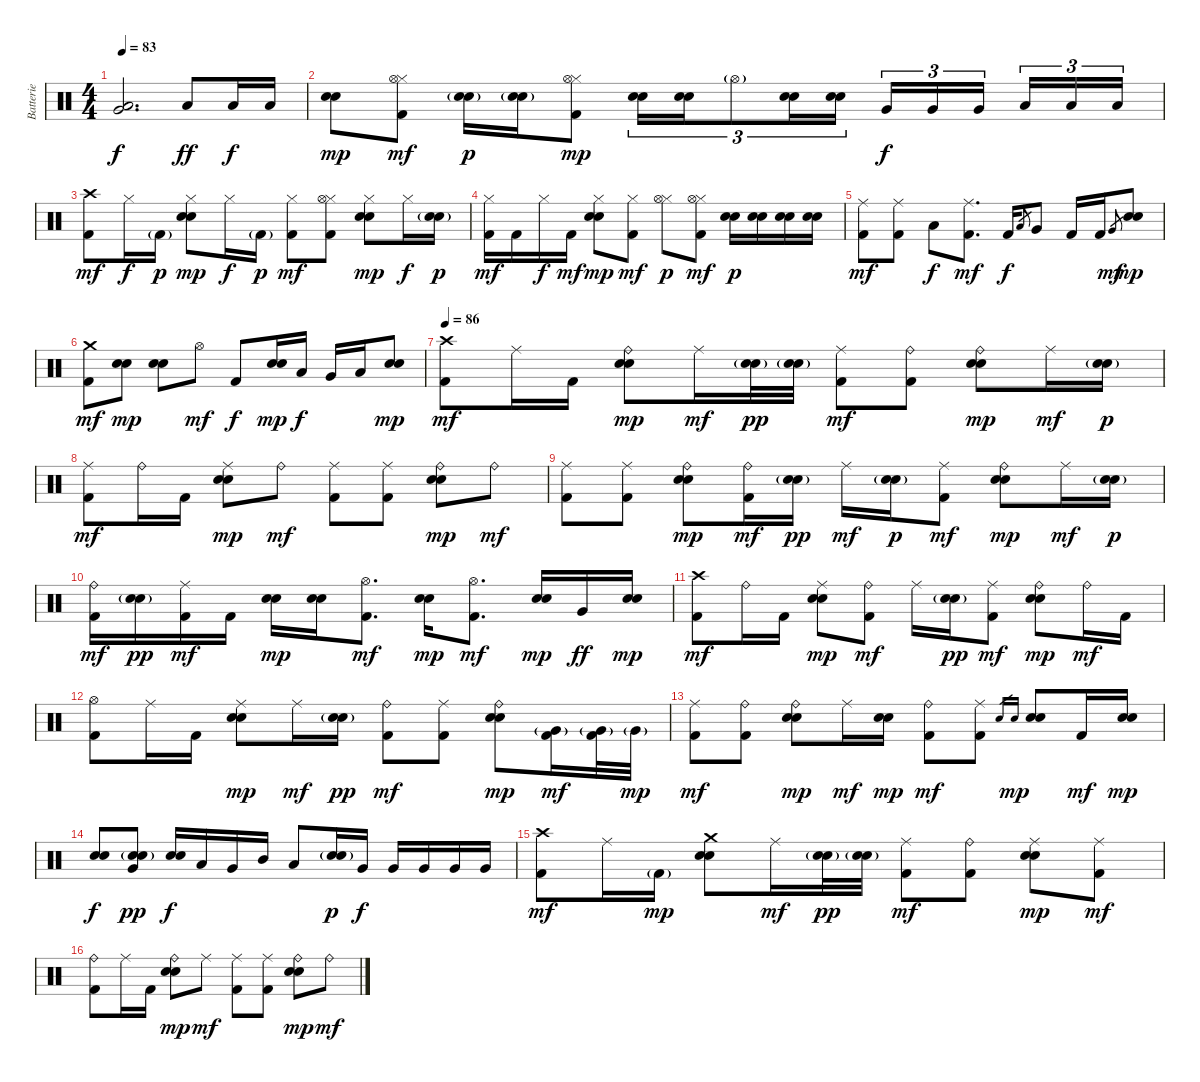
\track ("Batterie" "Batterie") {instrument percussion}
\staff {score}
\articulation defaults
\ts (4 4)
\tempo 83
\clef neutral
\ks c
("Very Low Tom (hit)" "Low Floor Tom (hit)").2{d dy f} "Low Floor Tom (hit)".8{dy ff} "Low Floor Tom (hit)".16{dy f} "Low Floor Tom (hit)".16 |
("Electric Snare (hit)" "Snare (hit) 2").8{dy mp} ("Hi-Hat (closed)" "Hi-Hat (open)" "Kick (hit) 2").8{dy mf} ("Electric Snare (hit)"{g} "Snare (hit) 2"{g}).16{dy p} ("Electric Snare (hit)"{g} "Snare (hit) 2"{g}).16 ("Hi-Hat (closed)" "Hi-Hat (open)" "Kick (hit) 2").8{dy mp} ("Electric Snare (hit)" "Snare (hit) 2").16{tu (3 2)} ("Electric Snare (hit)" "Snare (hit) 2").16{tu (3 2)} "Hi-Hat (open)"{g}.8{tu (3 2)} ("Electric Snare (hit)" "Snare (hit) 2").16{tu (3 2)} ("Electric Snare (hit)" "Snare (hit) 2").16{tu (3 2)} "Very Low Tom (hit)".16{tu (3 2) dy f} "Very Low Tom (hit)".16{tu (3 2)} "Very Low Tom (hit)".16{tu (3 2)} "Low Floor Tom (hit)".16{tu (3 2)} "Low Floor Tom (hit)".16{tu (3 2)} "Low Floor Tom (hit)".16{tu (3 2)} |
("Crash high (hit)" "Kick (hit) 2").8{dy mf} "Hi-Hat (closed)".16{dy f} "Kick (hit) 2"{g}.16{dy p} ("Hi-Hat (closed)" "Electric Snare (hit)" "Snare (hit) 2").8{dy mp} "Hi-Hat (closed)".16{dy f} "Kick (hit) 2"{g}.16{dy p} ("Hi-Hat (closed)" "Kick (hit) 2").8{dy mf} ("Hi-Hat (closed)" "Hi-Hat (open)" "Kick (hit) 2").8 ("Hi-Hat (closed)" "Electric Snare (hit)" "Snare (hit) 2").8{dy mp} "Hi-Hat (closed)".16{dy f} ("Electric Snare (hit)"{g} "Snare (hit) 2"{g}).16{dy p} |
("Hi-Hat (closed)" "Kick (hit) 2").16{dy mf} "Kick (hit) 2".16 "Hi-Hat (closed)".16{dy f} "Kick (hit) 2".16{dy mf} ("Hi-Hat (closed)" "Electric Snare (hit)" "Snare (hit) 2").8{dy mp} ("Hi-Hat (closed)" "Kick (hit) 2").8{dy mf} ("Hi-Hat (closed)" "Hi-Hat (open)").8{dy p} ("Hi-Hat (closed)" "Hi-Hat (open)" "Kick (hit) 2").8{dy mf} ("Electric Snare (hit)" "Snare (hit) 2").16{dy p} ("Electric Snare (hit)" "Snare (hit) 2").16 ("Electric Snare (hit)" "Snare (hit) 2").16 ("Electric Snare (hit)" "Snare (hit) 2").16 |
("Ride (middle)" "Kick (hit) 2").8{dy mf} ("Ride (middle)" "Kick (hit) 2").8 "Low Tom (hit)".8{dy f} ("Ride (middle)" "Kick (hit) 2").8{d dy mf} "Kick (hit) 2".16{dy f} "Low Tom (hit)".8{gr} "Very Low Tom (hit)".8 "Kick (hit) 2".16 "Kick (hit) 2".16 "Very Low Tom (hit)".8{gr dy mf} ("Electric Snare (hit)" "Snare (hit) 2").8{dy mp} |
("Crash medium (hit)" "Kick (hit) 2").8{dy mf} ("Electric Snare (hit)" "Snare (hit) 2").8{dy mp} ("Electric Snare (hit)" "Snare (hit) 2").8 "Hi-Hat (open)".8{dy mf} "Kick (hit) 2".8{dy f} ("Electric Snare (hit)" "Snare (hit) 2").16{dy mp} "Low Tom (hit)".16{dy f} "Very Low Tom (hit)".16 "Low Floor Tom (hit)".16 ("Electric Snare (hit)" "Snare (hit) 2").8{dy mp} |
\tempo 86
("Crash high (hit)" "Kick (hit) 2").8{dy mf} "Ride (middle)".16 "Kick (hit) 2".16 ("Ride (bell)" "Electric Snare (hit)" "Snare (hit) 2").8{dy mp} "Ride (middle)".16{dy mf} ("Electric Snare (hit)"{g} "Snare (hit) 2"{g}).32{dy pp} ("Electric Snare (hit)"{g} "Snare (hit) 2"{g}).32 ("Ride (middle)" "Kick (hit) 2").8{dy mf} ("Ride (bell)" "Kick (hit) 2").8 ("Ride (bell)" "Electric Snare (hit)" "Snare (hit) 2").8{dy mp} "Ride (middle)".16{dy mf} ("Electric Snare (hit)"{g} "Snare (hit) 2"{g}).16{dy p} |
("Ride (middle)" "Kick (hit) 2").8{dy mf} "Ride (bell)".16 "Kick (hit) 2".16 ("Ride (middle)" "Electric Snare (hit)" "Snare (hit) 2").8{dy mp} "Ride (bell)".8{dy mf} ("Ride (middle)" "Kick (hit) 2").8 ("Ride (middle)" "Kick (hit) 2").8 ("Ride (bell)" "Electric Snare (hit)" "Snare (hit) 2").8{dy mp} "Ride (bell)".8{dy mf} |
("Ride (middle)" "Kick (hit) 2").8 ("Ride (middle)" "Kick (hit) 2").8 ("Ride (bell)" "Electric Snare (hit)" "Snare (hit) 2").8{dy mp} ("Ride (bell)" "Kick (hit) 2").16{dy mf} ("Electric Snare (hit)"{g} "Snare (hit) 2"{g}).16{dy pp} "Ride (middle)".16{dy mf} ("Electric Snare (hit)"{g} "Snare (hit) 2"{g}).16{dy p} ("Ride (middle)" "Kick (hit) 2").8{dy mf} ("Ride (bell)" "Electric Snare (hit)" "Snare (hit) 2").8{dy mp} "Ride (middle)".16{dy mf} ("Electric Snare (hit)"{g} "Snare (hit) 2"{g}).16{dy p} |
("Ride (bell)" "Kick (hit) 2").16{dy mf} ("Electric Snare (hit)"{g} "Snare (hit) 2"{g}).16{dy pp} ("Ride (middle)" "Kick (hit) 2").16{dy mf} "Kick (hit) 2".16 ("Electric Snare (hit)" "Snare (hit) 2").16{dy mp} ("Electric Snare (hit)" "Snare (hit) 2").16 ("Hi-Hat (open)" "Kick (hit) 2").8{d dy mf} ("Electric Snare (hit)" "Snare (hit) 2").16{dy mp} ("Hi-Hat (open)" "Kick (hit) 2").8{d dy mf} ("Electric Snare (hit)" "Snare (hit) 2").16{dy mp} "Very Low Tom (hit)".16{dy ff} ("Electric Snare (hit)" "Snare (hit) 2").16{dy mp} |
("Crash high (hit)" "Kick (hit) 2").8{dy mf} "Ride (bell)".16 "Kick (hit) 2".16 ("Ride (middle)" "Electric Snare (hit)" "Snare (hit) 2").8{dy mp} ("Ride (bell)" "Kick (hit) 2").8{dy mf} "Ride (middle)".16 ("Electric Snare (hit)"{g} "Snare (hit) 2"{g}).16{dy pp} ("Ride (middle)" "Kick (hit) 2").8{dy mf} ("Ride (bell)" "Electric Snare (hit)" "Snare (hit) 2").8{dy mp} "Ride (bell)".16{dy mf} "Kick (hit) 2".16 |
("Hi-Hat (open)" "Kick (hit) 2").8 "Ride (middle)".16 "Kick (hit) 2".16 ("Ride (middle)" "Electric Snare (hit)" "Snare (hit) 2").8{dy mp} "Ride (middle)".16{dy mf} ("Electric Snare (hit)"{g} "Snare (hit) 2"{g}).16{dy pp} ("Ride (bell)" "Kick (hit) 2").8{dy mf} ("Ride (middle)" "Kick (hit) 2").8 ("Ride (bell)" "Electric Snare (hit)" "Snare (hit) 2").8{dy mp} ("Very Low Tom (hit)"{g} "Kick (hit) 2").16{dy mf} ("Very Low Tom (hit)"{g} "Kick (hit) 2").32 "Very Low Tom (hit)"{g}.32{dy mp} |
("Ride (middle)" "Kick (hit) 2").8{dy mf} ("Ride (bell)" "Kick (hit) 2").8 ("Ride (bell)" "Electric Snare (hit)" "Snare (hit) 2").8{dy mp} "Ride (middle)".16{dy mf} ("Electric Snare (hit)" "Snare (hit) 2").16{dy mp} ("Ride (bell)" "Kick (hit) 2").8{dy mf} ("Ride (middle)" "Kick (hit) 2").8 "Electric Snare (hit)".16{gr} "Snare (hit) 2".16{gr dy mp} ("Electric Snare (hit)" "Snare (hit) 2").8 "Kick (hit) 2".16{dy mf} ("Electric Snare (hit)" "Snare (hit) 2").16{dy mp} |
("Electric Snare (hit)" "Snare (hit) 2").8{dy f} ("Electric Snare (hit)"{g} "Snare (hit) 2"{g} "Very Low Tom (hit)").8{dy pp} ("Electric Snare (hit)" "Snare (hit) 2").16{dy f} "Low Tom (hit)".16 "Very Low Tom (hit)".16 "Mid Tom (hit)".16 "Low Tom (hit)".8 ("Electric Snare (hit)"{g} "Snare (hit) 2"{g}).16{dy p} "Very Low Tom (hit)".16{dy f} "Very Low Tom (hit)".16 "Very Low Tom (hit)".16 "Very Low Tom (hit)".16 "Very Low Tom (hit)".16 |
("Crash high (hit)" "Kick (hit) 2").8{dy mf} "Ride (middle)".16 "Kick (hit) 2"{g}.16{dy mp} ("Crash medium (hit)" "Electric Snare (hit)" "Snare (hit) 2").8 "Ride (middle)".16{dy mf} ("Electric Snare (hit)"{g} "Snare (hit) 2"{g}).32{dy pp} ("Electric Snare (hit)"{g} "Snare (hit) 2"{g}).32 ("Ride (middle)" "Kick (hit) 2").8{dy mf} ("Ride (bell)" "Kick (hit) 2").8 ("Ride (middle)" "Electric Snare (hit)" "Snare (hit) 2").8{dy mp} ("Ride (middle)" "Kick (hit) 2").8{dy mf} |
("Ride (bell)" "Kick (hit) 2").8 "Ride (middle)".16 "Kick (hit) 2".16 ("Ride (bell)" "Electric Snare (hit)" "Snare (hit) 2").8{dy mp} "Ride (middle)".8{dy mf} ("Ride (middle)" "Kick (hit) 2").8 ("Ride (middle)" "Kick (hit) 2").8 ("Ride (bell)" "Electric Snare (hit)" "Snare (hit) 2").8{dy mp} "Ride (bell)".8{dy mf}
